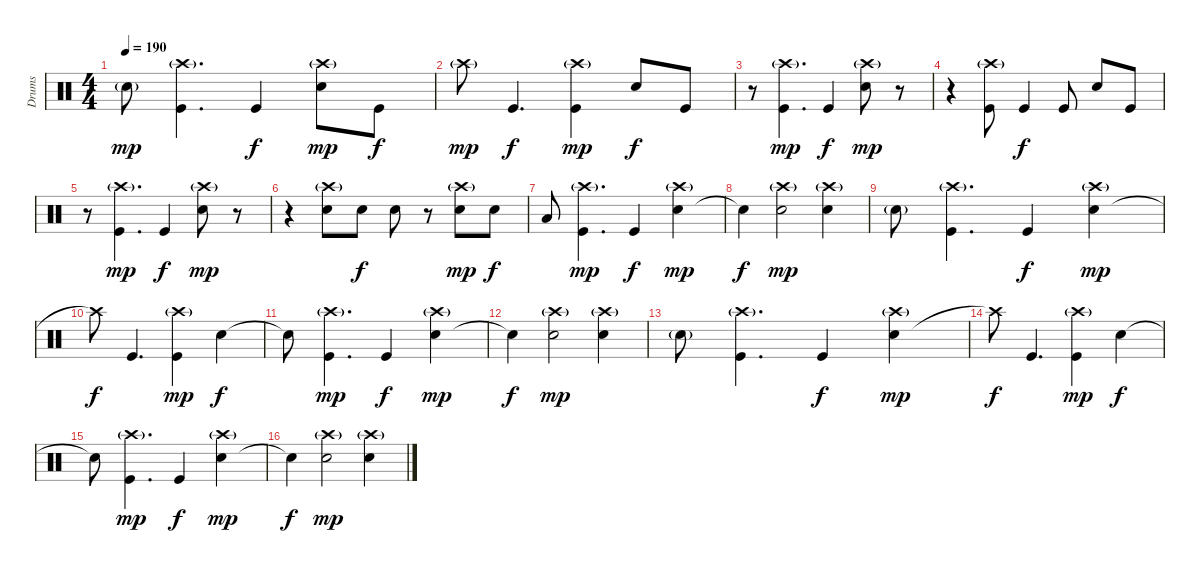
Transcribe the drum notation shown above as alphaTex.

\track ("Drums" "Drums") {instrument percussion}
\staff {score}
\articulation defaults
\ts (4 4)
\tempo 190
\clef neutral
\ks c "Electric Snare (hit)"{g}.8{dy mp}
("Kick (hit)" "Crash high (hit)"{g}).4{d} "Kick (hit)".4{dy f} ("Electric Snare (hit)" "Crash high (hit)"{g}).8{dy mp} "Kick (hit)".8{dy f} |
"Crash high (hit)"{g}.8{dy mp} "Kick (hit)".4{d dy f} ("Kick (hit)" "Crash high (hit)"{g}).4{dy mp} "Electric Snare (hit)".8{dy f} "Kick (hit)".8 |
r.8 ("Kick (hit)" "Crash high (hit)"{g}).4{d dy mp} "Kick (hit)".4{dy f} ("Electric Snare (hit)" "Crash high (hit)"{g}).8{dy mp} r.8 |
r.4 ("Kick (hit)" "Crash high (hit)"{g}).8 "Kick (hit)".4{dy f} "Kick (hit)".8 "Electric Snare (hit)".8 "Kick (hit)".8 |
r.8 ("Kick (hit)" "Crash high (hit)"{g}).4{d dy mp} "Kick (hit)".4{dy f} ("Electric Snare (hit)" "Crash high (hit)"{g}).8{dy mp} r.8 |
r.4 ("Electric Snare (hit)" "Crash high (hit)"{g}).8 "Electric Snare (hit)".8{dy f} "Electric Snare (hit)".8 r.8 ("Electric Snare (hit)" "Crash high (hit)"{g}).8{dy mp} "Electric Snare (hit)".8{dy f} |
"Low Tom (hit)".8 ("Kick (hit)" "Crash high (hit)"{g}).4{d dy mp} "Kick (hit)".4{dy f} ("Electric Snare (hit)" "Crash high (hit)"{g}).4{dy mp} |
"Electric Snare (hit)"{t}.4{dy f} ("Electric Snare (hit)" "Crash high (hit)"{g}).2{dy mp} ("Electric Snare (hit)" "Crash high (hit)"{g}).4 |
"Electric Snare (hit)"{g}.8 ("Kick (hit)" "Crash high (hit)"{g}).4{d} "Kick (hit)".4{dy f} ("Electric Snare (hit)" "Crash high (hit)"{g}).4{dy mp} |
"Crash high (hit)"{t}.8{dy f} "Kick (hit)".4{d} ("Kick (hit)" "Crash high (hit)"{g}).4{dy mp} "Electric Snare (hit)".4{dy f} |
"Electric Snare (hit)"{t}.8 ("Kick (hit)" "Crash high (hit)"{g}).4{d dy mp} "Kick (hit)".4{dy f} ("Electric Snare (hit)" "Crash high (hit)"{g}).4{dy mp} |
"Electric Snare (hit)"{t}.4{dy f} ("Electric Snare (hit)" "Crash high (hit)"{g}).2{dy mp} ("Electric Snare (hit)" "Crash high (hit)"{g}).4 |
"Electric Snare (hit)"{g}.8 ("Kick (hit)" "Crash high (hit)"{g}).4{d} "Kick (hit)".4{dy f} ("Electric Snare (hit)" "Crash high (hit)"{g}).4{dy mp} |
"Crash high (hit)"{t}.8{dy f} "Kick (hit)".4{d} ("Kick (hit)" "Crash high (hit)"{g}).4{dy mp} "Electric Snare (hit)".4{dy f} |
"Electric Snare (hit)"{t}.8 ("Kick (hit)" "Crash high (hit)"{g}).4{d dy mp} "Kick (hit)".4{dy f} ("Electric Snare (hit)" "Crash high (hit)"{g}).4{dy mp} |
"Electric Snare (hit)"{t}.4{dy f} ("Electric Snare (hit)" "Crash high (hit)"{g}).2{dy mp} ("Electric Snare (hit)" "Crash high (hit)"{g}).4
